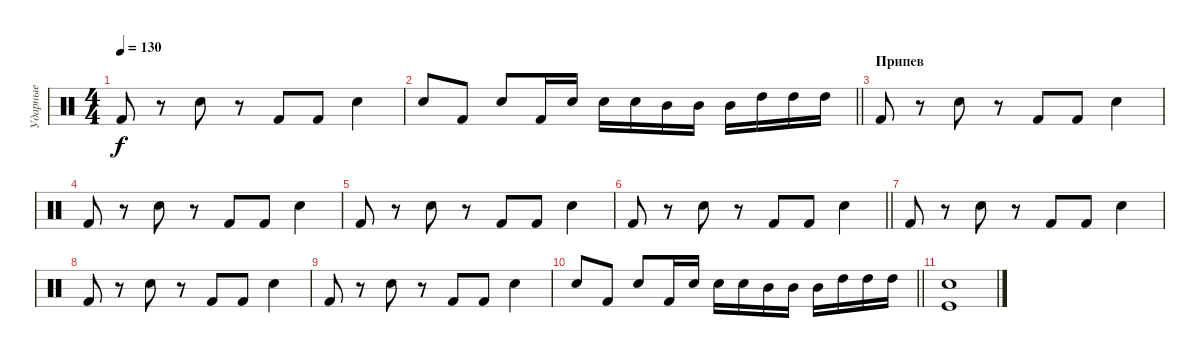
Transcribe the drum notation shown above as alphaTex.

\track ("Ударные" "Ударные") {instrument percussion}
\staff {score}
\articulation defaults
\ts (4 4)
\tempo 130
\clef neutral
\ks c "Kick (hit) 2".8{dy f}
r.8 "Snare (hit) 2".8 r.8 "Kick (hit) 2".8 "Kick (hit) 2".8 "Snare (hit) 2".4 |
\barLineRight lightlight "Snare (hit) 2".8 "Kick (hit) 2".8 "Snare (hit) 2".8 "Kick (hit) 2".16 "Snare (hit) 2".16 "Snare (hit) 2".16 "Snare (hit) 2".16 "Mid Tom (hit)".16 "Mid Tom (hit)".16 "Mid Tom (hit)".16 "High Tom (hit)".16 "High Tom (hit)".16 "High Tom (hit)".16
|
\section ("" "Припев")
"Kick (hit) 2".8 r.8 "Snare (hit) 2".8 r.8 "Kick (hit) 2".8 "Kick (hit) 2".8 "Snare (hit) 2".4 |
"Kick (hit) 2".8 r.8 "Snare (hit) 2".8 r.8 "Kick (hit) 2".8 "Kick (hit) 2".8 "Snare (hit) 2".4 |
"Kick (hit) 2".8 r.8 "Snare (hit) 2".8 r.8 "Kick (hit) 2".8 "Kick (hit) 2".8 "Snare (hit) 2".4 |
\barLineRight lightlight "Kick (hit) 2".8
r.8 "Snare (hit) 2".8 r.8 "Kick (hit) 2".8 "Kick (hit) 2".8 "Snare (hit) 2".4 |
"Kick (hit) 2".8 r.8 "Snare (hit) 2".8 r.8 "Kick (hit) 2".8 "Kick (hit) 2".8 "Snare (hit) 2".4 |
"Kick (hit) 2".8 r.8 "Snare (hit) 2".8 r.8 "Kick (hit) 2".8 "Kick (hit) 2".8 "Snare (hit) 2".4 |
"Kick (hit) 2".8 r.8 "Snare (hit) 2".8 r.8 "Kick (hit) 2".8 "Kick (hit) 2".8 "Snare (hit) 2".4 |
\barLineRight lightlight "Snare (hit) 2".8 "Kick (hit) 2".8 "Snare (hit) 2".8 "Kick (hit) 2".16 "Snare (hit) 2".16 "Snare (hit) 2".16 "Snare (hit) 2".16 "Mid Tom (hit)".16 "Mid Tom (hit)".16 "Mid Tom (hit)".16 "High Tom (hit)".16 "High Tom (hit)".16 "High Tom (hit)".16
|
("Kick (hit)" "Snare (hit) 2").1
